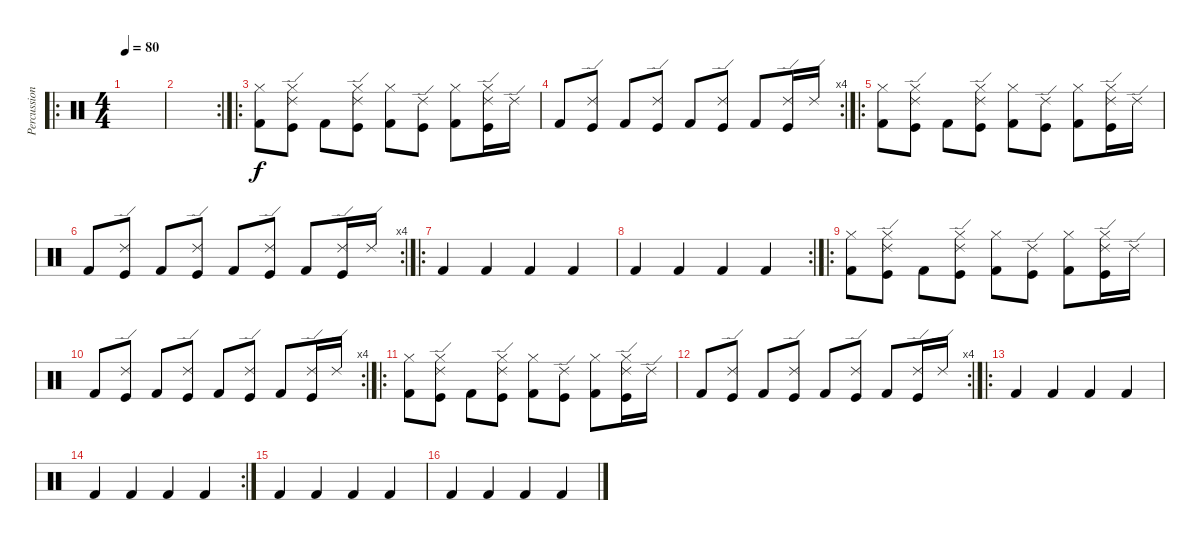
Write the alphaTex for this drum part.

\track ("Percussions" "Percussion") {instrument percussion}
\staff {score}
\articulation defaults
\ro
\ts (4 4)
\tempo 80
\clef neutral
\ks c
|
\rc 2
|
\ro
("Kick (hit) 2" "Hi-Hat (closed)").8 ("Ride (edge) 2" "Kick (hit)" "Hi-Hat (closed)").8 "Kick (hit) 2".8 ("Ride (edge) 2" "Kick (hit)" "Hi-Hat (closed)").8 ("Kick (hit) 2" "Hi-Hat (closed)").8 ("Ride (edge) 2" "Kick (hit)").8 ("Kick (hit) 2" "Hi-Hat (closed)").8 ("Ride (edge) 2" "Kick (hit)" "Hi-Hat (closed)").16 "Ride (edge) 2".16 |
\rc 4 "Kick (hit) 2".8
("Ride (edge) 2" "Kick (hit)").8 "Kick (hit) 2".8 ("Ride (edge) 2" "Kick (hit)").8 "Kick (hit) 2".8 ("Ride (edge) 2" "Kick (hit)").8 "Kick (hit) 2".8 ("Ride (edge) 2" "Kick (hit)").16 "Ride (edge) 2".16 |
\ro
("Kick (hit) 2" "Hi-Hat (closed)").8 ("Ride (edge) 2" "Kick (hit)" "Hi-Hat (closed)").8 "Kick (hit) 2".8 ("Ride (edge) 2" "Kick (hit)" "Hi-Hat (closed)").8 ("Kick (hit) 2" "Hi-Hat (closed)").8 ("Ride (edge) 2" "Kick (hit)").8 ("Kick (hit) 2" "Hi-Hat (closed)").8 ("Ride (edge) 2" "Kick (hit)" "Hi-Hat (closed)").16 "Ride (edge) 2".16 |
\rc 4 "Kick (hit) 2".8
("Ride (edge) 2" "Kick (hit)").8 "Kick (hit) 2".8 ("Ride (edge) 2" "Kick (hit)").8 "Kick (hit) 2".8 ("Ride (edge) 2" "Kick (hit)").8 "Kick (hit) 2".8 ("Ride (edge) 2" "Kick (hit)").16 "Ride (edge) 2".16 |
\ro "Kick (hit) 2".4 "Kick (hit) 2".4 "Kick (hit) 2".4 "Kick (hit) 2".4
|
\rc 2 "Kick (hit) 2".4 "Kick (hit) 2".4 "Kick (hit) 2".4 "Kick (hit) 2".4
|
\ro
("Kick (hit) 2" "Hi-Hat (closed)").8 ("Ride (edge) 2" "Kick (hit)" "Hi-Hat (closed)").8 "Kick (hit) 2".8 ("Ride (edge) 2" "Kick (hit)" "Hi-Hat (closed)").8 ("Kick (hit) 2" "Hi-Hat (closed)").8 ("Ride (edge) 2" "Kick (hit)").8 ("Kick (hit) 2" "Hi-Hat (closed)").8 ("Ride (edge) 2" "Kick (hit)" "Hi-Hat (closed)").16 "Ride (edge) 2".16 |
\rc 4 "Kick (hit) 2".8
("Ride (edge) 2" "Kick (hit)").8 "Kick (hit) 2".8 ("Ride (edge) 2" "Kick (hit)").8 "Kick (hit) 2".8 ("Ride (edge) 2" "Kick (hit)").8 "Kick (hit) 2".8 ("Ride (edge) 2" "Kick (hit)").16 "Ride (edge) 2".16 |
\ro
("Kick (hit) 2" "Hi-Hat (closed)").8 ("Ride (edge) 2" "Kick (hit)" "Hi-Hat (closed)").8 "Kick (hit) 2".8 ("Ride (edge) 2" "Kick (hit)" "Hi-Hat (closed)").8 ("Kick (hit) 2" "Hi-Hat (closed)").8 ("Ride (edge) 2" "Kick (hit)").8 ("Kick (hit) 2" "Hi-Hat (closed)").8 ("Ride (edge) 2" "Kick (hit)" "Hi-Hat (closed)").16 "Ride (edge) 2".16 |
\rc 4 "Kick (hit) 2".8
("Ride (edge) 2" "Kick (hit)").8 "Kick (hit) 2".8 ("Ride (edge) 2" "Kick (hit)").8 "Kick (hit) 2".8 ("Ride (edge) 2" "Kick (hit)").8 "Kick (hit) 2".8 ("Ride (edge) 2" "Kick (hit)").16 "Ride (edge) 2".16 |
\ro "Kick (hit) 2".4 "Kick (hit) 2".4 "Kick (hit) 2".4 "Kick (hit) 2".4
|
\rc 2 "Kick (hit) 2".4 "Kick (hit) 2".4 "Kick (hit) 2".4 "Kick (hit) 2".4
|
"Kick (hit) 2".4 "Kick (hit) 2".4 "Kick (hit) 2".4 "Kick (hit) 2".4 |
"Kick (hit) 2".4 "Kick (hit) 2".4 "Kick (hit) 2".4 "Kick (hit) 2".4
